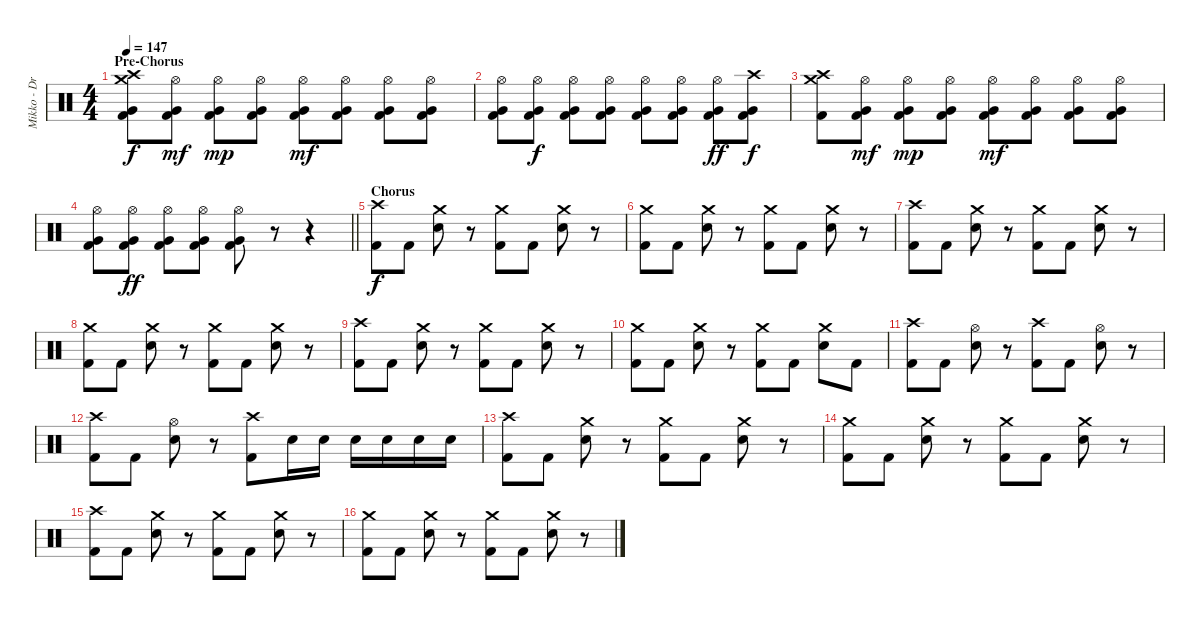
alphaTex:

\track ("Mikko - Drums" "Mikko - Dr") {instrument percussion}
\staff {score}
\articulation defaults
\ts (4 4)
\section ("" "Pre-Chorus")
\tempo 147
\clef neutral
\ks c
("Crash medium (hit)" "Crash high (hit)" "Very Low Tom (hit)" "Kick (hit) 2").8{dy f} ("Hi-Hat (open)" "Very Low Tom (hit)" "Kick (hit) 2").8{dy mf} ("Hi-Hat (open)" "Very Low Tom (hit)" "Kick (hit) 2").8{dy mp} ("Hi-Hat (open)" "Very Low Tom (hit)" "Kick (hit) 2").8 ("Hi-Hat (open)" "Very Low Tom (hit)" "Kick (hit) 2").8{dy mf} ("Hi-Hat (open)" "Very Low Tom (hit)" "Kick (hit) 2").8 ("Hi-Hat (open)" "Very Low Tom (hit)" "Kick (hit) 2").8 ("Hi-Hat (open)" "Very Low Tom (hit)" "Kick (hit) 2").8 |
("Hi-Hat (open)" "Very Low Tom (hit)" "Kick (hit) 2").8 ("Hi-Hat (open)" "Very Low Tom (hit)" "Kick (hit) 2").8{dy f} ("Hi-Hat (open)" "Very Low Tom (hit)" "Kick (hit) 2").8 ("Hi-Hat (open)" "Very Low Tom (hit)" "Kick (hit) 2").8 ("Hi-Hat (open)" "Very Low Tom (hit)" "Kick (hit) 2").8 ("Hi-Hat (open)" "Very Low Tom (hit)" "Kick (hit) 2").8 ("Hi-Hat (open)" "Very Low Tom (hit)" "Kick (hit) 2").8{dy ff} ("Crash high (hit)" "Very Low Tom (hit)" "Kick (hit) 2").8{dy f} |
("Crash medium (hit)" "Crash high (hit)" "Kick (hit) 2").8 ("Hi-Hat (open)" "Very Low Tom (hit)" "Kick (hit) 2").8{dy mf} ("Hi-Hat (open)" "Very Low Tom (hit)" "Kick (hit) 2").8{dy mp} ("Hi-Hat (open)" "Very Low Tom (hit)" "Kick (hit) 2").8 ("Hi-Hat (open)" "Very Low Tom (hit)" "Kick (hit) 2").8{dy mf} ("Hi-Hat (open)" "Very Low Tom (hit)" "Kick (hit) 2").8 ("Hi-Hat (open)" "Very Low Tom (hit)" "Kick (hit) 2").8 ("Hi-Hat (open)" "Very Low Tom (hit)" "Kick (hit) 2").8 |
\barLineRight lightlight
("Hi-Hat (open)" "Very Low Tom (hit)" "Kick (hit) 2").8 ("Hi-Hat (open)" "Very Low Tom (hit)" "Kick (hit) 2").8{dy ff} ("Hi-Hat (open)" "Very Low Tom (hit)" "Kick (hit) 2").8 ("Hi-Hat (open)" "Very Low Tom (hit)" "Kick (hit) 2").8 ("Hi-Hat (open)" "Very Low Tom (hit)" "Kick (hit) 2").8 r.8 r.4 |
\section ("" "Chorus")
("Crash high (hit)" "Kick (hit) 2").8{dy f} "Kick (hit) 2".8 ("Crash medium (hit)" "Snare (hit) 2").8 r.8 ("Crash medium (hit)" "Kick (hit) 2").8 "Kick (hit) 2".8 ("Crash medium (hit)" "Snare (hit) 2").8 r.8 |
("Crash medium (hit)" "Kick (hit) 2").8 "Kick (hit) 2".8 ("Crash medium (hit)" "Snare (hit) 2").8 r.8 ("Crash medium (hit)" "Kick (hit) 2").8 "Kick (hit) 2".8 ("Crash medium (hit)" "Snare (hit) 2").8 r.8 |
("Crash high (hit)" "Kick (hit) 2").8 "Kick (hit) 2".8 ("Crash medium (hit)" "Snare (hit) 2").8 r.8 ("Crash medium (hit)" "Kick (hit) 2").8 "Kick (hit) 2".8 ("Crash medium (hit)" "Snare (hit) 2").8 r.8 |
("Crash medium (hit)" "Kick (hit) 2").8 "Kick (hit) 2".8 ("Crash medium (hit)" "Snare (hit) 2").8 r.8 ("Crash medium (hit)" "Kick (hit) 2").8 "Kick (hit) 2".8 ("Crash medium (hit)" "Snare (hit) 2").8 r.8 |
("Crash high (hit)" "Kick (hit) 2").8 "Kick (hit) 2".8 ("Crash medium (hit)" "Snare (hit) 2").8 r.8 ("Crash medium (hit)" "Kick (hit) 2").8 "Kick (hit) 2".8 ("Crash medium (hit)" "Snare (hit) 2").8 r.8 |
("Crash medium (hit)" "Kick (hit) 2").8 "Kick (hit) 2".8 ("Crash medium (hit)" "Snare (hit) 2").8 r.8 ("Crash medium (hit)" "Kick (hit) 2").8 "Kick (hit) 2".8 ("Crash medium (hit)" "Snare (hit) 2").8 "Kick (hit) 2".8 |
("Crash high (hit)" "Kick (hit) 2").8 "Kick (hit) 2".8 ("Hi-Hat (open)" "Snare (hit) 2").8 r.8 ("Crash high (hit)" "Kick (hit) 2").8 "Kick (hit) 2".8 ("Hi-Hat (open)" "Snare (hit) 2").8 r.8 |
("Crash high (hit)" "Kick (hit) 2").8 "Kick (hit) 2".8 ("Hi-Hat (open)" "Snare (hit) 2").8 r.8 ("Crash high (hit)" "Kick (hit) 2").8 "Snare (hit) 2".16 "Snare (hit) 2".16 "Snare (hit) 2".16 "Snare (hit) 2".16 "Snare (hit) 2".16 "Snare (hit) 2".16 |
("Crash high (hit)" "Kick (hit) 2").8 "Kick (hit) 2".8 ("Crash medium (hit)" "Snare (hit) 2").8 r.8 ("Crash medium (hit)" "Kick (hit) 2").8 "Kick (hit) 2".8 ("Crash medium (hit)" "Snare (hit) 2").8 r.8 |
("Crash medium (hit)" "Kick (hit) 2").8 "Kick (hit) 2".8 ("Crash medium (hit)" "Snare (hit) 2").8 r.8 ("Crash medium (hit)" "Kick (hit) 2").8 "Kick (hit) 2".8 ("Crash medium (hit)" "Snare (hit) 2").8 r.8 |
("Crash high (hit)" "Kick (hit) 2").8 "Kick (hit) 2".8 ("Crash medium (hit)" "Snare (hit) 2").8 r.8 ("Crash medium (hit)" "Kick (hit) 2").8 "Kick (hit) 2".8 ("Crash medium (hit)" "Snare (hit) 2").8 r.8 |
("Crash medium (hit)" "Kick (hit) 2").8 "Kick (hit) 2".8 ("Crash medium (hit)" "Snare (hit) 2").8 r.8 ("Crash medium (hit)" "Kick (hit) 2").8 "Kick (hit) 2".8 ("Crash medium (hit)" "Snare (hit) 2").8 r.8
